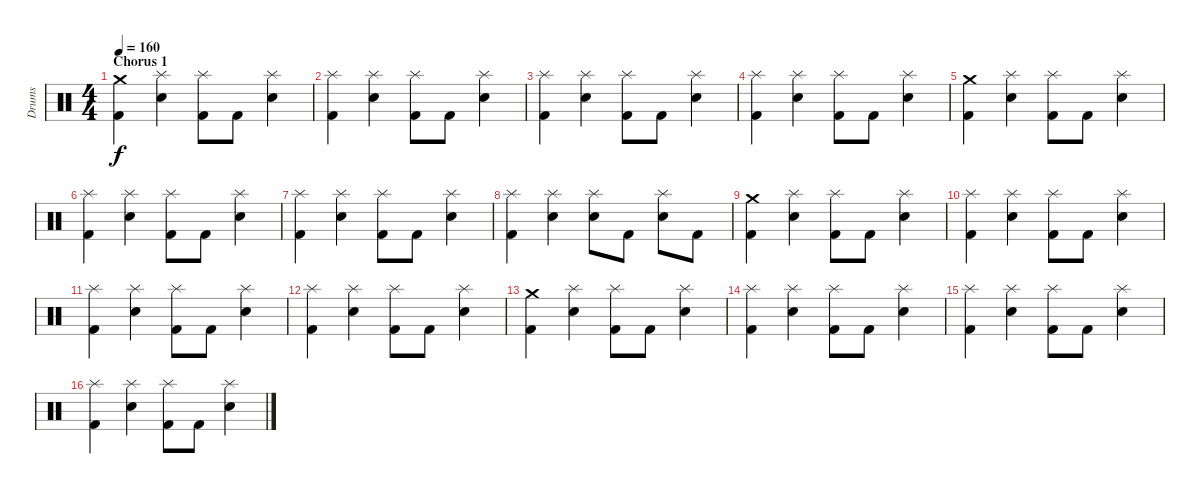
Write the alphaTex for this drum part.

\track ("Drums" "Drums") {instrument percussion}
\staff {score}
\articulation defaults
\ts (4 4)
\section ("" "Chorus 1")
\tempo 160
\clef neutral
\ks c
("Kick (hit) 2" "Crash medium (hit)").4{dy f} ("Splash (hit)" "Electric Snare (hit)").4 ("Kick (hit) 2" "Splash (hit)").8 "Kick (hit) 2".8 ("Splash (hit)" "Electric Snare (hit)").4 |
("Kick (hit) 2" "Splash (hit)").4 ("Splash (hit)" "Electric Snare (hit)").4 ("Kick (hit) 2" "Splash (hit)").8 "Kick (hit) 2".8 ("Splash (hit)" "Electric Snare (hit)").4 |
("Kick (hit) 2" "Splash (hit)").4 ("Electric Snare (hit)" "Splash (hit)").4 ("Kick (hit) 2" "Splash (hit)").8 "Kick (hit) 2".8 ("Electric Snare (hit)" "Splash (hit)").4 |
("Kick (hit) 2" "Splash (hit)").4 ("Electric Snare (hit)" "Splash (hit)").4 ("Kick (hit) 2" "Splash (hit)").8 "Kick (hit) 2".8 ("Electric Snare (hit)" "Splash (hit)").4 |
("Kick (hit) 2" "Crash medium (hit)").4 ("Splash (hit)" "Electric Snare (hit)").4 ("Kick (hit) 2" "Splash (hit)").8 "Kick (hit) 2".8 ("Splash (hit)" "Electric Snare (hit)").4 |
("Kick (hit) 2" "Splash (hit)").4 ("Splash (hit)" "Electric Snare (hit)").4 ("Kick (hit) 2" "Splash (hit)").8 "Kick (hit) 2".8 ("Splash (hit)" "Electric Snare (hit)").4 |
("Kick (hit) 2" "Splash (hit)").4 ("Electric Snare (hit)" "Splash (hit)").4 ("Kick (hit) 2" "Splash (hit)").8 "Kick (hit) 2".8 ("Electric Snare (hit)" "Splash (hit)").4 |
("Kick (hit) 2" "Splash (hit)").4 ("Electric Snare (hit)" "Splash (hit)").4 ("Snare (hit) 2" "Splash (hit)").8 "Kick (hit) 2".8 ("Electric Snare (hit)" "Splash (hit)").8 "Kick (hit) 2".8 |
("Kick (hit) 2" "Crash medium (hit)").4 ("Splash (hit)" "Electric Snare (hit)").4 ("Kick (hit) 2" "Splash (hit)").8 "Kick (hit) 2".8 ("Splash (hit)" "Electric Snare (hit)").4 |
("Kick (hit) 2" "Splash (hit)").4 ("Splash (hit)" "Electric Snare (hit)").4 ("Kick (hit) 2" "Splash (hit)").8 "Kick (hit) 2".8 ("Splash (hit)" "Electric Snare (hit)").4 |
("Kick (hit) 2" "Splash (hit)").4 ("Electric Snare (hit)" "Splash (hit)").4 ("Kick (hit) 2" "Splash (hit)").8 "Kick (hit) 2".8 ("Electric Snare (hit)" "Splash (hit)").4 |
("Kick (hit) 2" "Splash (hit)").4 ("Electric Snare (hit)" "Splash (hit)").4 ("Kick (hit) 2" "Splash (hit)").8 "Kick (hit) 2".8 ("Electric Snare (hit)" "Splash (hit)").4 |
("Kick (hit) 2" "Crash medium (hit)").4 ("Splash (hit)" "Electric Snare (hit)").4 ("Kick (hit) 2" "Splash (hit)").8 "Kick (hit) 2".8 ("Splash (hit)" "Electric Snare (hit)").4 |
("Kick (hit) 2" "Splash (hit)").4 ("Splash (hit)" "Electric Snare (hit)").4 ("Kick (hit) 2" "Splash (hit)").8 "Kick (hit) 2".8 ("Splash (hit)" "Electric Snare (hit)").4 |
("Kick (hit) 2" "Splash (hit)").4 ("Electric Snare (hit)" "Splash (hit)").4 ("Kick (hit) 2" "Splash (hit)").8 "Kick (hit) 2".8 ("Electric Snare (hit)" "Splash (hit)").4 |
("Kick (hit) 2" "Splash (hit)").4 ("Electric Snare (hit)" "Splash (hit)").4 ("Kick (hit) 2" "Splash (hit)").8 "Kick (hit) 2".8 ("Electric Snare (hit)" "Splash (hit)").4
